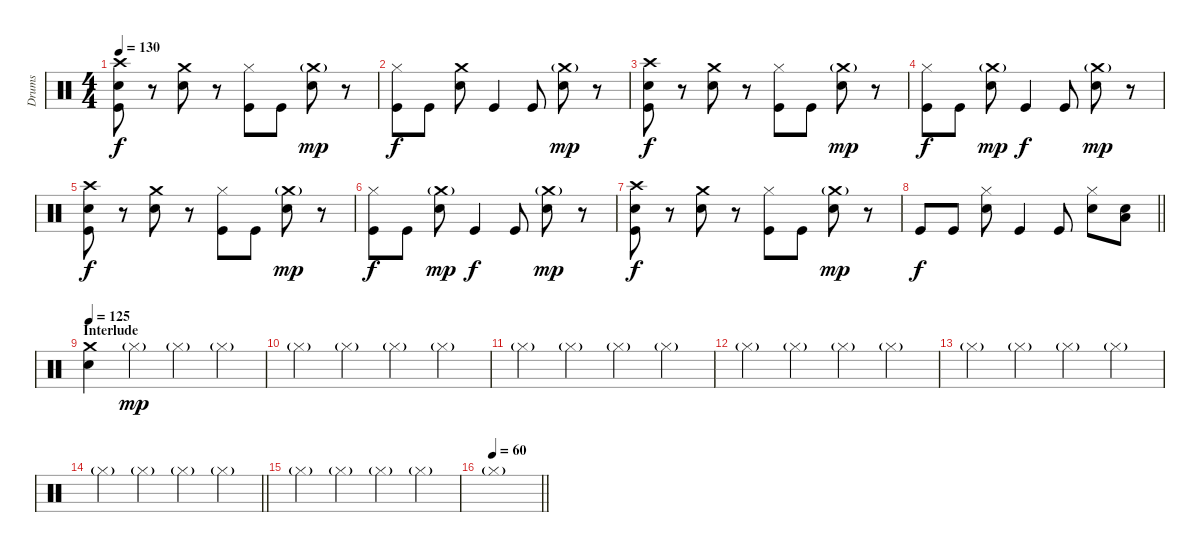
\track ("Drums" "Drums") {instrument percussion}
\staff {score}
\articulation defaults
\ts (4 4)
\tempo 130
\clef neutral
\ks c
("Electric Snare (hit)" "Kick (hit)" "Crash high (hit)").8{dy f} r.8 ("Crash medium (hit)" "Electric Snare (hit)").8 r.8 ("Hi-Hat (closed)" "Kick (hit)").8 "Kick (hit)".8 ("Crash medium (hit)"{g} "Electric Snare (hit)").8{dy mp} r.8 |
("Hi-Hat (closed)" "Kick (hit)").8{dy f} "Kick (hit)".8 ("Crash medium (hit)" "Electric Snare (hit)").8 "Kick (hit)".4 "Kick (hit)".8 ("Crash medium (hit)"{g} "Electric Snare (hit)").8{dy mp} r.8 |
("Electric Snare (hit)" "Kick (hit)" "Crash high (hit)").8{dy f} r.8 ("Crash medium (hit)" "Electric Snare (hit)").8 r.8 ("Hi-Hat (closed)" "Kick (hit)").8 "Kick (hit)".8 ("Crash medium (hit)"{g} "Electric Snare (hit)").8{dy mp} r.8 |
("Hi-Hat (closed)" "Kick (hit)").8{dy f} "Kick (hit)".8 ("Crash medium (hit)"{g} "Electric Snare (hit)").8{dy mp} "Kick (hit)".4{dy f} "Kick (hit)".8 ("Crash medium (hit)"{g} "Electric Snare (hit)").8{dy mp} r.8 |
("Electric Snare (hit)" "Kick (hit)" "Crash high (hit)").8{dy f} r.8 ("Crash medium (hit)" "Electric Snare (hit)").8 r.8 ("Hi-Hat (closed)" "Kick (hit)").8 "Kick (hit)".8 ("Crash medium (hit)"{g} "Electric Snare (hit)").8{dy mp} r.8 |
("Hi-Hat (closed)" "Kick (hit)").8{dy f} "Kick (hit)".8 ("Crash medium (hit)"{g} "Electric Snare (hit)").8{dy mp} "Kick (hit)".4{dy f} "Kick (hit)".8 ("Crash medium (hit)"{g} "Electric Snare (hit)").8{dy mp} r.8 |
("Electric Snare (hit)" "Kick (hit)" "Crash high (hit)").8{dy f} r.8 ("Crash medium (hit)" "Electric Snare (hit)").8 r.8 ("Hi-Hat (closed)" "Kick (hit)").8 "Kick (hit)".8 ("Crash medium (hit)"{g} "Electric Snare (hit)").8{dy mp} r.8 |
\barLineRight lightlight "Kick (hit)".8{dy f} "Kick (hit)".8
("Hi-Hat (closed)" "Electric Snare (hit)").8 "Kick (hit)".4 "Kick (hit)".8 ("Hi-Hat (closed)" "Electric Snare (hit)").8 ("Low Floor Tom (hit)" "Electric Snare (hit)").8 |
\section ("" "Interlude")
\tempo 125
("Crash medium (hit)" "Electric Snare (hit)").4 "Hi-Hat (closed)"{g}.4{dy mp} "Hi-Hat (closed)"{g}.4 "Hi-Hat (closed)"{g}.4 |
"Hi-Hat (closed)"{g}.4 "Hi-Hat (closed)"{g}.4 "Hi-Hat (closed)"{g}.4 "Hi-Hat (closed)"{g}.4 |
"Hi-Hat (closed)"{g}.4 "Hi-Hat (closed)"{g}.4 "Hi-Hat (closed)"{g}.4 "Hi-Hat (closed)"{g}.4 |
"Hi-Hat (closed)"{g}.4 "Hi-Hat (closed)"{g}.4 "Hi-Hat (closed)"{g}.4 "Hi-Hat (closed)"{g}.4 |
"Hi-Hat (closed)"{g}.4 "Hi-Hat (closed)"{g}.4 "Hi-Hat (closed)"{g}.4 "Hi-Hat (closed)"{g}.4 |
\barLineRight lightlight "Hi-Hat (closed)"{g}.4 "Hi-Hat (closed)"{g}.4 "Hi-Hat (closed)"{g}.4 "Hi-Hat (closed)"{g}.4
|
\section ("" "")
"Hi-Hat (closed)"{g}.4 "Hi-Hat (closed)"{g}.4 "Hi-Hat (closed)"{g}.4 "Hi-Hat (closed)"{g}.4 |
\tempo 60
\barLineRight lightlight "Hi-Hat (closed)"{g}.1
